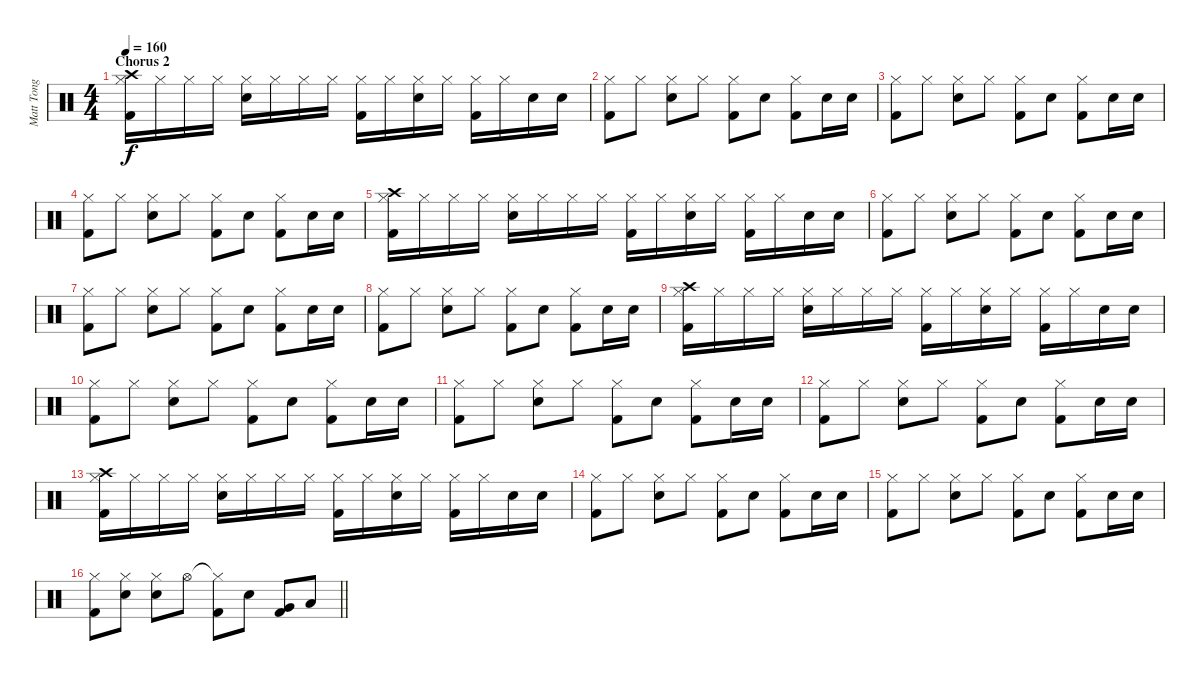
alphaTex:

\track ("Matt Tong" "Matt Tong") {instrument percussion}
\staff {score}
\articulation defaults
\ts (4 4)
\section ("" "Chorus 2")
\tempo 160
\clef neutral
\ks c
("Crash high (hit)" "Hi-Hat (closed)" "Kick (hit) 2").16{dy f} "Hi-Hat (closed)".16 "Hi-Hat (closed)".16 "Hi-Hat (closed)".16 ("Hi-Hat (closed)" "Electric Snare (hit)").16 "Hi-Hat (closed)".16 "Hi-Hat (closed)".16 "Hi-Hat (closed)".16 ("Hi-Hat (closed)" "Kick (hit) 2").16 "Hi-Hat (closed)".16 ("Hi-Hat (closed)" "Electric Snare (hit)").16 "Hi-Hat (closed)".16 ("Hi-Hat (closed)" "Kick (hit) 2").16 "Hi-Hat (closed)".16 "Electric Snare (hit)".16 "Electric Snare (hit)".16 |
("Hi-Hat (closed)" "Kick (hit) 2").8 "Hi-Hat (closed)".8 ("Hi-Hat (closed)" "Electric Snare (hit)").8 "Hi-Hat (closed)".8 ("Hi-Hat (closed)" "Kick (hit) 2").8 "Electric Snare (hit)".8 ("Hi-Hat (closed)" "Kick (hit) 2").8 "Electric Snare (hit)".16 "Electric Snare (hit)".16 |
("Hi-Hat (closed)" "Kick (hit) 2").8 "Hi-Hat (closed)".8 ("Hi-Hat (closed)" "Electric Snare (hit)").8 "Hi-Hat (closed)".8 ("Hi-Hat (closed)" "Kick (hit) 2").8 "Electric Snare (hit)".8 ("Hi-Hat (closed)" "Kick (hit) 2").8 "Electric Snare (hit)".16 "Electric Snare (hit)".16 |
("Hi-Hat (closed)" "Kick (hit) 2").8 "Hi-Hat (closed)".8 ("Hi-Hat (closed)" "Electric Snare (hit)").8 "Hi-Hat (closed)".8 ("Hi-Hat (closed)" "Kick (hit) 2").8 "Electric Snare (hit)".8 ("Hi-Hat (closed)" "Kick (hit) 2").8 "Electric Snare (hit)".16 "Electric Snare (hit)".16 |
("Crash high (hit)" "Hi-Hat (closed)" "Kick (hit) 2").16 "Hi-Hat (closed)".16 "Hi-Hat (closed)".16 "Hi-Hat (closed)".16 ("Hi-Hat (closed)" "Electric Snare (hit)").16 "Hi-Hat (closed)".16 "Hi-Hat (closed)".16 "Hi-Hat (closed)".16 ("Hi-Hat (closed)" "Kick (hit) 2").16 "Hi-Hat (closed)".16 ("Hi-Hat (closed)" "Electric Snare (hit)").16 "Hi-Hat (closed)".16 ("Hi-Hat (closed)" "Kick (hit) 2").16 "Hi-Hat (closed)".16 "Electric Snare (hit)".16 "Electric Snare (hit)".16 |
("Hi-Hat (closed)" "Kick (hit) 2").8 "Hi-Hat (closed)".8 ("Hi-Hat (closed)" "Electric Snare (hit)").8 "Hi-Hat (closed)".8 ("Hi-Hat (closed)" "Kick (hit) 2").8 "Electric Snare (hit)".8 ("Hi-Hat (closed)" "Kick (hit) 2").8 "Electric Snare (hit)".16 "Electric Snare (hit)".16 |
("Hi-Hat (closed)" "Kick (hit) 2").8 "Hi-Hat (closed)".8 ("Hi-Hat (closed)" "Electric Snare (hit)").8 "Hi-Hat (closed)".8 ("Hi-Hat (closed)" "Kick (hit) 2").8 "Electric Snare (hit)".8 ("Hi-Hat (closed)" "Kick (hit) 2").8 "Electric Snare (hit)".16 "Electric Snare (hit)".16 |
("Hi-Hat (closed)" "Kick (hit) 2").8 "Hi-Hat (closed)".8 ("Hi-Hat (closed)" "Electric Snare (hit)").8 "Hi-Hat (closed)".8 ("Hi-Hat (closed)" "Kick (hit) 2").8 "Electric Snare (hit)".8 ("Hi-Hat (closed)" "Kick (hit) 2").8 "Electric Snare (hit)".16 "Electric Snare (hit)".16 |
("Crash high (hit)" "Hi-Hat (closed)" "Kick (hit) 2").16 "Hi-Hat (closed)".16 "Hi-Hat (closed)".16 "Hi-Hat (closed)".16 ("Hi-Hat (closed)" "Electric Snare (hit)").16 "Hi-Hat (closed)".16 "Hi-Hat (closed)".16 "Hi-Hat (closed)".16 ("Hi-Hat (closed)" "Kick (hit) 2").16 "Hi-Hat (closed)".16 ("Hi-Hat (closed)" "Electric Snare (hit)").16 "Hi-Hat (closed)".16 ("Hi-Hat (closed)" "Kick (hit) 2").16 "Hi-Hat (closed)".16 "Electric Snare (hit)".16 "Electric Snare (hit)".16 |
("Hi-Hat (closed)" "Kick (hit) 2").8 "Hi-Hat (closed)".8 ("Hi-Hat (closed)" "Electric Snare (hit)").8 "Hi-Hat (closed)".8 ("Hi-Hat (closed)" "Kick (hit) 2").8 "Electric Snare (hit)".8 ("Hi-Hat (closed)" "Kick (hit) 2").8 "Electric Snare (hit)".16 "Electric Snare (hit)".16 |
("Hi-Hat (closed)" "Kick (hit) 2").8 "Hi-Hat (closed)".8 ("Hi-Hat (closed)" "Electric Snare (hit)").8 "Hi-Hat (closed)".8 ("Hi-Hat (closed)" "Kick (hit) 2").8 "Electric Snare (hit)".8 ("Hi-Hat (closed)" "Kick (hit) 2").8 "Electric Snare (hit)".16 "Electric Snare (hit)".16 |
("Hi-Hat (closed)" "Kick (hit) 2").8 "Hi-Hat (closed)".8 ("Hi-Hat (closed)" "Electric Snare (hit)").8 "Hi-Hat (closed)".8 ("Hi-Hat (closed)" "Kick (hit) 2").8 "Electric Snare (hit)".8 ("Hi-Hat (closed)" "Kick (hit) 2").8 "Electric Snare (hit)".16 "Electric Snare (hit)".16 |
("Crash high (hit)" "Hi-Hat (closed)" "Kick (hit) 2").16 "Hi-Hat (closed)".16 "Hi-Hat (closed)".16 "Hi-Hat (closed)".16 ("Hi-Hat (closed)" "Electric Snare (hit)").16 "Hi-Hat (closed)".16 "Hi-Hat (closed)".16 "Hi-Hat (closed)".16 ("Hi-Hat (closed)" "Kick (hit) 2").16 "Hi-Hat (closed)".16 ("Hi-Hat (closed)" "Electric Snare (hit)").16 "Hi-Hat (closed)".16 ("Hi-Hat (closed)" "Kick (hit) 2").16 "Hi-Hat (closed)".16 "Electric Snare (hit)".16 "Electric Snare (hit)".16 |
("Hi-Hat (closed)" "Kick (hit) 2").8 "Hi-Hat (closed)".8 ("Hi-Hat (closed)" "Electric Snare (hit)").8 "Hi-Hat (closed)".8 ("Hi-Hat (closed)" "Kick (hit) 2").8 "Electric Snare (hit)".8 ("Hi-Hat (closed)" "Kick (hit) 2").8 "Electric Snare (hit)".16 "Electric Snare (hit)".16 |
("Hi-Hat (closed)" "Kick (hit) 2").8 "Hi-Hat (closed)".8 ("Hi-Hat (closed)" "Electric Snare (hit)").8 "Hi-Hat (closed)".8 ("Hi-Hat (closed)" "Kick (hit) 2").8 "Electric Snare (hit)".8 ("Hi-Hat (closed)" "Kick (hit) 2").8 "Electric Snare (hit)".16 "Electric Snare (hit)".16 |
\barLineRight lightlight
("Hi-Hat (closed)" "Kick (hit) 2").8 ("Hi-Hat (closed)" "Electric Snare (hit)").8 ("Hi-Hat (closed)" "Electric Snare (hit)").8 "Hi-Hat (open)".8 ("Hi-Hat (closed)"{t} "Kick (hit) 2").8 "Electric Snare (hit)".8 ("Very Low Tom (hit)" "Kick (hit) 2").8 "Low Floor Tom (hit)".8
